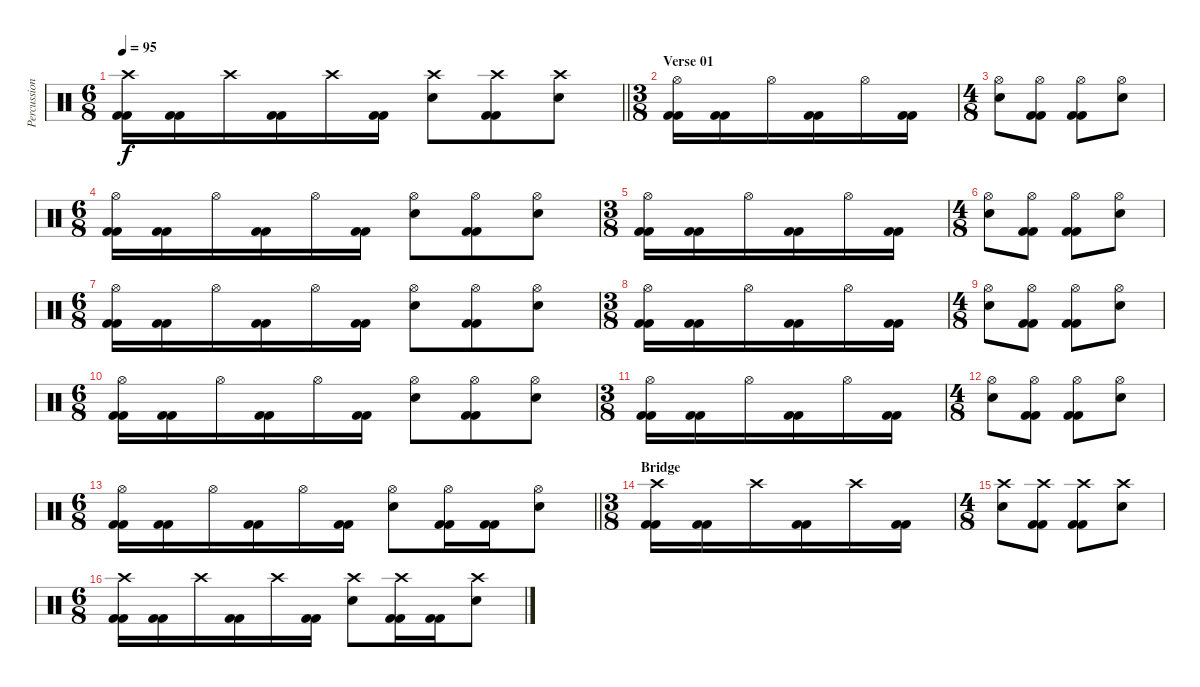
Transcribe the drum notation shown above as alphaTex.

\track ("Percussion" "Percussion") {instrument percussion}
\staff {score}
\articulation defaults
\ts (6 8)
\tempo 95
\clef neutral
\barLineRight lightlight
\ks c
("Crash high (hit)" "Kick (hit) 2" "Kick (hit) 2").16{dy f} ("Kick (hit) 2" "Kick (hit) 2").16 "Crash high (hit)".16 ("Kick (hit) 2" "Kick (hit) 2").16 "Crash high (hit)".16 ("Kick (hit) 2" "Kick (hit) 2").16 ("Crash high (hit)" "Electric Snare (hit)").8 ("Crash high (hit)" "Kick (hit) 2" "Kick (hit) 2").8 ("Crash high (hit)" "Electric Snare (hit)").8 |
\ts (3 8)
\section ("" "Verse 01")
("Hi-Hat (open)" "Kick (hit) 2" "Kick (hit) 2").16 ("Kick (hit) 2" "Kick (hit) 2").16 "Hi-Hat (open)".16 ("Kick (hit) 2" "Kick (hit) 2").16 "Hi-Hat (open)".16 ("Kick (hit) 2" "Kick (hit) 2").16 |
\ts (4 8)
("Hi-Hat (open)" "Electric Snare (hit)").8 ("Hi-Hat (open)" "Kick (hit) 2" "Kick (hit) 2").8 ("Hi-Hat (open)" "Kick (hit) 2" "Kick (hit) 2").8 ("Hi-Hat (open)" "Electric Snare (hit)").8 |
\ts (6 8)
("Hi-Hat (open)" "Kick (hit) 2" "Kick (hit) 2").16 ("Kick (hit) 2" "Kick (hit) 2").16 "Hi-Hat (open)".16 ("Kick (hit) 2" "Kick (hit) 2").16 "Hi-Hat (open)".16 ("Kick (hit) 2" "Kick (hit) 2").16 ("Hi-Hat (open)" "Electric Snare (hit)").8 ("Hi-Hat (open)" "Kick (hit) 2" "Kick (hit) 2").8 ("Hi-Hat (open)" "Electric Snare (hit)").8 |
\ts (3 8)
("Hi-Hat (open)" "Kick (hit) 2" "Kick (hit) 2").16 ("Kick (hit) 2" "Kick (hit) 2").16 "Hi-Hat (open)".16 ("Kick (hit) 2" "Kick (hit) 2").16 "Hi-Hat (open)".16 ("Kick (hit) 2" "Kick (hit) 2").16 |
\ts (4 8)
("Hi-Hat (open)" "Electric Snare (hit)").8 ("Hi-Hat (open)" "Kick (hit) 2" "Kick (hit) 2").8 ("Hi-Hat (open)" "Kick (hit) 2" "Kick (hit) 2").8 ("Hi-Hat (open)" "Electric Snare (hit)").8 |
\ts (6 8)
("Hi-Hat (open)" "Kick (hit) 2" "Kick (hit) 2").16 ("Kick (hit) 2" "Kick (hit) 2").16 "Hi-Hat (open)".16 ("Kick (hit) 2" "Kick (hit) 2").16 "Hi-Hat (open)".16 ("Kick (hit) 2" "Kick (hit) 2").16 ("Hi-Hat (open)" "Electric Snare (hit)").8 ("Hi-Hat (open)" "Kick (hit) 2" "Kick (hit) 2").8 ("Hi-Hat (open)" "Electric Snare (hit)").8 |
\ts (3 8)
("Hi-Hat (open)" "Kick (hit) 2" "Kick (hit) 2").16 ("Kick (hit) 2" "Kick (hit) 2").16 "Hi-Hat (open)".16 ("Kick (hit) 2" "Kick (hit) 2").16 "Hi-Hat (open)".16 ("Kick (hit) 2" "Kick (hit) 2").16 |
\ts (4 8)
("Hi-Hat (open)" "Electric Snare (hit)").8 ("Hi-Hat (open)" "Kick (hit) 2" "Kick (hit) 2").8 ("Hi-Hat (open)" "Kick (hit) 2" "Kick (hit) 2").8 ("Hi-Hat (open)" "Electric Snare (hit)").8 |
\ts (6 8)
("Hi-Hat (open)" "Kick (hit) 2" "Kick (hit) 2").16 ("Kick (hit) 2" "Kick (hit) 2").16 "Hi-Hat (open)".16 ("Kick (hit) 2" "Kick (hit) 2").16 "Hi-Hat (open)".16 ("Kick (hit) 2" "Kick (hit) 2").16 ("Hi-Hat (open)" "Electric Snare (hit)").8 ("Hi-Hat (open)" "Kick (hit) 2" "Kick (hit) 2").8 ("Hi-Hat (open)" "Electric Snare (hit)").8 |
\ts (3 8)
("Hi-Hat (open)" "Kick (hit) 2" "Kick (hit) 2").16 ("Kick (hit) 2" "Kick (hit) 2").16 "Hi-Hat (open)".16 ("Kick (hit) 2" "Kick (hit) 2").16 "Hi-Hat (open)".16 ("Kick (hit) 2" "Kick (hit) 2").16 |
\ts (4 8)
("Hi-Hat (open)" "Electric Snare (hit)").8 ("Hi-Hat (open)" "Kick (hit) 2" "Kick (hit) 2").8 ("Hi-Hat (open)" "Kick (hit) 2" "Kick (hit) 2").8 ("Hi-Hat (open)" "Electric Snare (hit)").8 |
\ts (6 8)
\barLineRight lightlight
("Hi-Hat (open)" "Kick (hit) 2" "Kick (hit) 2").16 ("Kick (hit) 2" "Kick (hit) 2").16 "Hi-Hat (open)".16 ("Kick (hit) 2" "Kick (hit) 2").16 "Hi-Hat (open)".16 ("Kick (hit) 2" "Kick (hit) 2").16 ("Hi-Hat (open)" "Electric Snare (hit)").8 ("Hi-Hat (open)" "Kick (hit) 2" "Kick (hit) 2").16 ("Kick (hit) 2" "Kick (hit) 2").16 ("Hi-Hat (open)" "Electric Snare (hit)").8 |
\ts (3 8)
\section ("" "Bridge")
("Crash high (hit)" "Kick (hit) 2" "Kick (hit) 2").16 ("Kick (hit) 2" "Kick (hit) 2").16 "Crash high (hit)".16 ("Kick (hit) 2" "Kick (hit) 2").16 "Crash high (hit)".16 ("Kick (hit) 2" "Kick (hit) 2").16 |
\ts (4 8)
("Crash high (hit)" "Electric Snare (hit)").8 ("Crash high (hit)" "Kick (hit) 2" "Kick (hit) 2").8 ("Crash high (hit)" "Kick (hit) 2" "Kick (hit) 2").8 ("Crash high (hit)" "Electric Snare (hit)").8 |
\ts (6 8)
("Crash high (hit)" "Kick (hit) 2" "Kick (hit) 2").16 ("Kick (hit) 2" "Kick (hit) 2").16 "Crash high (hit)".16 ("Kick (hit) 2" "Kick (hit) 2").16 "Crash high (hit)".16 ("Kick (hit) 2" "Kick (hit) 2").16 ("Crash high (hit)" "Electric Snare (hit)").8 ("Crash high (hit)" "Kick (hit) 2" "Kick (hit) 2").16 ("Kick (hit) 2" "Kick (hit) 2").16 ("Crash high (hit)" "Electric Snare (hit)").8
